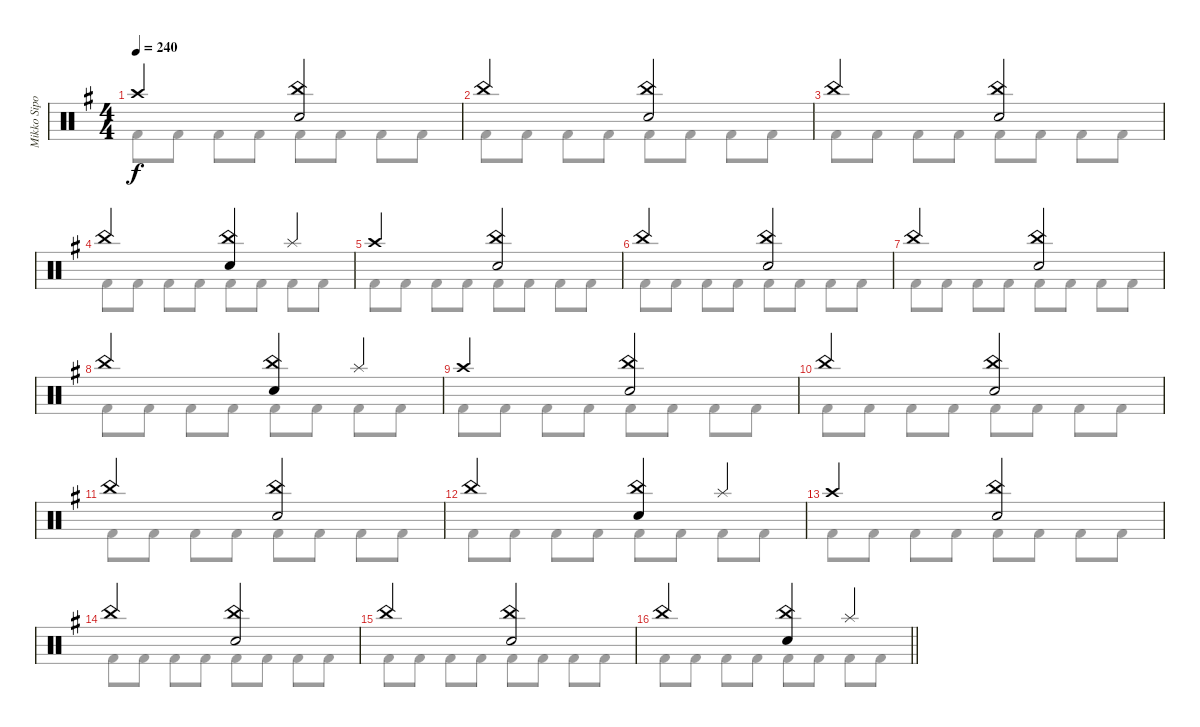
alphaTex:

\track ("Mikko Sipola (drums)" "Mikko Sipo") {instrument percussion}
\staff {score}
\articulation defaults
\voice
\ts (4 4)
\tempo 240
\clef neutral
\ks eminor "Crash high (hit)".2{dy f}
("Electric Snare (hit)" "China (hit)").2 |
"China (hit)".2 ("Electric Snare (hit)" "China (hit)").2 |
"China (hit)".2 ("Electric Snare (hit)" "China (hit)").2 |
"China (hit)".2 ("Electric Snare (hit)" "China (hit)").4 "Splash (hit)".4 |
"Crash high (hit)".2 ("Electric Snare (hit)" "China (hit)").2 |
"China (hit)".2 ("Electric Snare (hit)" "China (hit)").2 |
"China (hit)".2 ("Electric Snare (hit)" "China (hit)").2 |
"China (hit)".2 ("Electric Snare (hit)" "China (hit)").4 "Splash (hit)".4 |
"Crash high (hit)".2 ("Electric Snare (hit)" "China (hit)").2 |
"China (hit)".2 ("Electric Snare (hit)" "China (hit)").2 |
"China (hit)".2 ("Electric Snare (hit)" "China (hit)").2 |
"China (hit)".2 ("Electric Snare (hit)" "China (hit)").4 "Splash (hit)".4 |
"Crash high (hit)".2 ("Electric Snare (hit)" "China (hit)").2 |
"China (hit)".2 ("Electric Snare (hit)" "China (hit)").2 |
"China (hit)".2 ("Electric Snare (hit)" "China (hit)").2 |
\barLineRight lightlight "China (hit)".2
("Electric Snare (hit)" "China (hit)").4 "Splash (hit)".4
\voice
\clef neutral
\ottava regular
\simile none
\ks eminor "Kick (hit) 2".8{dy f} "Kick (hit) 2".8 "Kick (hit) 2".8 "Kick (hit) 2".8 "Kick (hit) 2".8 "Kick (hit) 2".8 "Kick (hit) 2".8 "Kick (hit) 2".8
|
"Kick (hit) 2".8 "Kick (hit) 2".8 "Kick (hit) 2".8 "Kick (hit) 2".8 "Kick (hit) 2".8 "Kick (hit) 2".8 "Kick (hit) 2".8 "Kick (hit) 2".8 |
"Kick (hit) 2".8 "Kick (hit) 2".8 "Kick (hit) 2".8 "Kick (hit) 2".8 "Kick (hit) 2".8 "Kick (hit) 2".8 "Kick (hit) 2".8 "Kick (hit) 2".8 |
"Kick (hit) 2".8 "Kick (hit) 2".8 "Kick (hit) 2".8 "Kick (hit) 2".8 "Kick (hit) 2".8 "Kick (hit) 2".8 "Kick (hit) 2".8 "Kick (hit) 2".8 |
"Kick (hit) 2".8 "Kick (hit) 2".8 "Kick (hit) 2".8 "Kick (hit) 2".8 "Kick (hit) 2".8 "Kick (hit) 2".8 "Kick (hit) 2".8 "Kick (hit) 2".8 |
"Kick (hit) 2".8 "Kick (hit) 2".8 "Kick (hit) 2".8 "Kick (hit) 2".8 "Kick (hit) 2".8 "Kick (hit) 2".8 "Kick (hit) 2".8 "Kick (hit) 2".8 |
"Kick (hit) 2".8 "Kick (hit) 2".8 "Kick (hit) 2".8 "Kick (hit) 2".8 "Kick (hit) 2".8 "Kick (hit) 2".8 "Kick (hit) 2".8 "Kick (hit) 2".8 |
"Kick (hit) 2".8 "Kick (hit) 2".8 "Kick (hit) 2".8 "Kick (hit) 2".8 "Kick (hit) 2".8 "Kick (hit) 2".8 "Kick (hit) 2".8 "Kick (hit) 2".8 |
"Kick (hit) 2".8 "Kick (hit) 2".8 "Kick (hit) 2".8 "Kick (hit) 2".8 "Kick (hit) 2".8 "Kick (hit) 2".8 "Kick (hit) 2".8 "Kick (hit) 2".8 |
"Kick (hit) 2".8 "Kick (hit) 2".8 "Kick (hit) 2".8 "Kick (hit) 2".8 "Kick (hit) 2".8 "Kick (hit) 2".8 "Kick (hit) 2".8 "Kick (hit) 2".8 |
"Kick (hit) 2".8 "Kick (hit) 2".8 "Kick (hit) 2".8 "Kick (hit) 2".8 "Kick (hit) 2".8 "Kick (hit) 2".8 "Kick (hit) 2".8 "Kick (hit) 2".8 |
"Kick (hit) 2".8 "Kick (hit) 2".8 "Kick (hit) 2".8 "Kick (hit) 2".8 "Kick (hit) 2".8 "Kick (hit) 2".8 "Kick (hit) 2".8 "Kick (hit) 2".8 |
"Kick (hit) 2".8 "Kick (hit) 2".8 "Kick (hit) 2".8 "Kick (hit) 2".8 "Kick (hit) 2".8 "Kick (hit) 2".8 "Kick (hit) 2".8 "Kick (hit) 2".8 |
"Kick (hit) 2".8 "Kick (hit) 2".8 "Kick (hit) 2".8 "Kick (hit) 2".8 "Kick (hit) 2".8 "Kick (hit) 2".8 "Kick (hit) 2".8 "Kick (hit) 2".8 |
"Kick (hit) 2".8 "Kick (hit) 2".8 "Kick (hit) 2".8 "Kick (hit) 2".8 "Kick (hit) 2".8 "Kick (hit) 2".8 "Kick (hit) 2".8 "Kick (hit) 2".8 |
\barLineRight lightlight "Kick (hit) 2".8 "Kick (hit) 2".8 "Kick (hit) 2".8 "Kick (hit) 2".8 "Kick (hit) 2".8 "Kick (hit) 2".8 "Kick (hit) 2".8 "Kick (hit) 2".8
